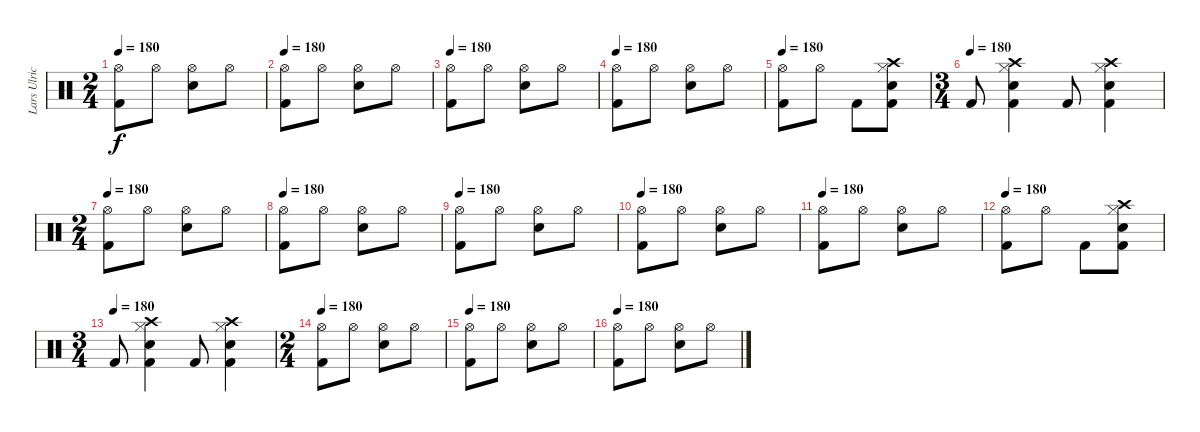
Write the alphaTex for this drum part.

\track ("Lars Ulrich" "Lars Ulric") {instrument percussion}
\staff {score}
\articulation defaults
\ts (2 4)
\tempo 180
\clef neutral
\ks c
("Kick (hit) 2" "Hi-Hat (open)").8{dy f} "Hi-Hat (open)".8 ("Snare (hit) 2" "Hi-Hat (open)").8 "Hi-Hat (open)".8 |
\tempo 180
("Kick (hit) 2" "Hi-Hat (open)").8 "Hi-Hat (open)".8 ("Snare (hit) 2" "Hi-Hat (open)").8 "Hi-Hat (open)".8 |
\tempo 180
("Kick (hit) 2" "Hi-Hat (open)").8 "Hi-Hat (open)".8 ("Snare (hit) 2" "Hi-Hat (open)").8 "Hi-Hat (open)".8 |
\tempo 180
("Kick (hit) 2" "Hi-Hat (open)").8 "Hi-Hat (open)".8 ("Snare (hit) 2" "Hi-Hat (open)").8 "Hi-Hat (open)".8 |
\tempo 180
("Kick (hit) 2" "Hi-Hat (open)").8 "Hi-Hat (open)".8 "Kick (hit) 2".8 ("Kick (hit) 2" "Snare (hit) 2" "Hi-Hat (closed)" "Crash high (hit)").8 |
\ts (3 4)
\tempo (180)
"Kick (hit) 2".8 ("Kick (hit) 2" "Snare (hit) 2" "Hi-Hat (closed)" "Crash high (hit)").4 "Kick (hit) 2".8 ("Kick (hit) 2" "Snare (hit) 2" "Hi-Hat (closed)" "Crash high (hit)").4 |
\ts (2 4)
\tempo 180
("Kick (hit) 2" "Hi-Hat (open)").8 "Hi-Hat (open)".8 ("Snare (hit) 2" "Hi-Hat (open)").8 "Hi-Hat (open)".8 |
\tempo 180
("Kick (hit) 2" "Hi-Hat (open)").8 "Hi-Hat (open)".8 ("Snare (hit) 2" "Hi-Hat (open)").8 "Hi-Hat (open)".8 |
\tempo 180
("Kick (hit) 2" "Hi-Hat (open)").8 "Hi-Hat (open)".8 ("Snare (hit) 2" "Hi-Hat (open)").8 "Hi-Hat (open)".8 |
\tempo 180
("Kick (hit) 2" "Hi-Hat (open)").8 "Hi-Hat (open)".8 ("Snare (hit) 2" "Hi-Hat (open)").8 "Hi-Hat (open)".8 |
\tempo 180
("Kick (hit) 2" "Hi-Hat (open)").8 "Hi-Hat (open)".8 ("Snare (hit) 2" "Hi-Hat (open)").8 "Hi-Hat (open)".8 |
\tempo 180
("Kick (hit) 2" "Hi-Hat (open)").8 "Hi-Hat (open)".8 "Kick (hit) 2".8 ("Kick (hit) 2" "Snare (hit) 2" "Hi-Hat (closed)" "Crash high (hit)").8 |
\ts (3 4)
\tempo (180)
"Kick (hit) 2".8 ("Kick (hit) 2" "Snare (hit) 2" "Hi-Hat (closed)" "Crash high (hit)").4 "Kick (hit) 2".8 ("Kick (hit) 2" "Snare (hit) 2" "Hi-Hat (closed)" "Crash high (hit)").4 |
\ts (2 4)
\tempo 180
("Kick (hit) 2" "Hi-Hat (open)").8 "Hi-Hat (open)".8 ("Snare (hit) 2" "Hi-Hat (open)").8 "Hi-Hat (open)".8 |
\tempo 180
("Kick (hit) 2" "Hi-Hat (open)").8 "Hi-Hat (open)".8 ("Snare (hit) 2" "Hi-Hat (open)").8 "Hi-Hat (open)".8 |
\tempo 180
("Kick (hit) 2" "Hi-Hat (open)").8 "Hi-Hat (open)".8 ("Snare (hit) 2" "Hi-Hat (open)").8 "Hi-Hat (open)".8
